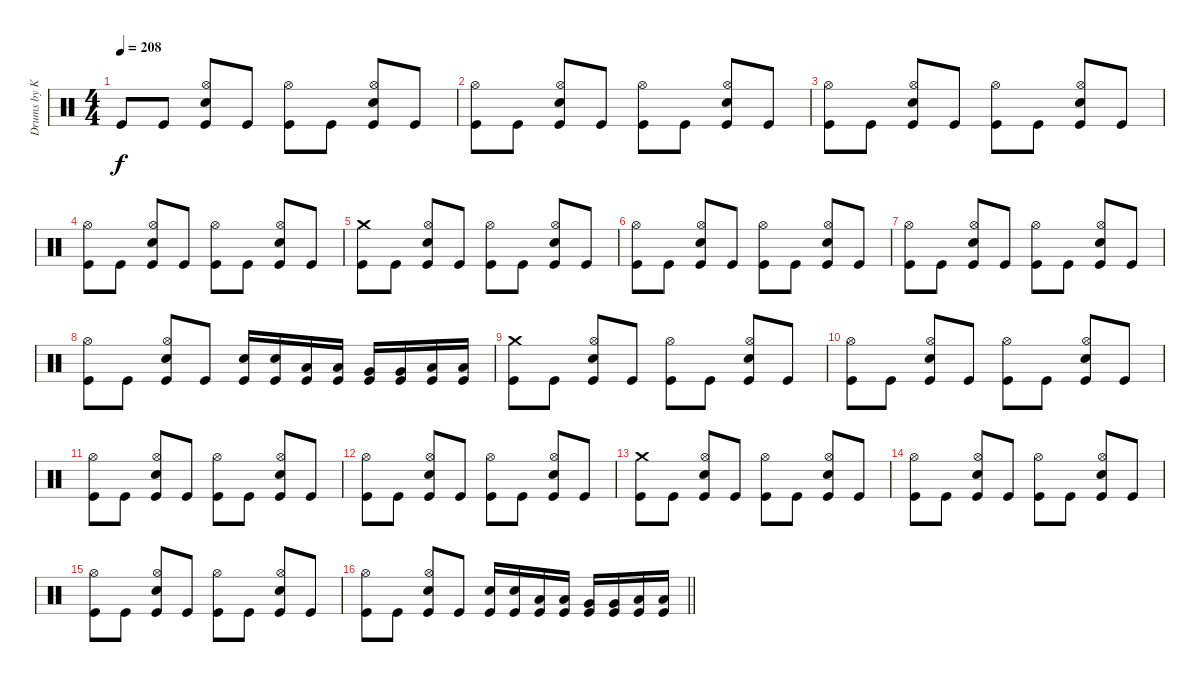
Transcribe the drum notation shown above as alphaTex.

\track ("Drums by Kwonnie" "Drums by K") {instrument percussion}
\staff {score}
\articulation defaults
\ts (4 4)
\tempo 208
\clef neutral
\ks c "Kick (hit)".8{dy f} "Kick (hit)".8
("Hi-Hat (open)" "Electric Snare (hit)" "Kick (hit)").8 "Kick (hit)".8 ("Hi-Hat (open)" "Kick (hit)").8 "Kick (hit)".8 ("Hi-Hat (open)" "Electric Snare (hit)" "Kick (hit)").8 "Kick (hit)".8 |
("Hi-Hat (open)" "Kick (hit)").8 "Kick (hit)".8 ("Hi-Hat (open)" "Electric Snare (hit)" "Kick (hit)").8 "Kick (hit)".8 ("Hi-Hat (open)" "Kick (hit)").8 "Kick (hit)".8 ("Hi-Hat (open)" "Electric Snare (hit)" "Kick (hit)").8 "Kick (hit)".8 |
("Hi-Hat (open)" "Kick (hit)").8 "Kick (hit)".8 ("Hi-Hat (open)" "Electric Snare (hit)" "Kick (hit)").8 "Kick (hit)".8 ("Hi-Hat (open)" "Kick (hit)").8 "Kick (hit)".8 ("Hi-Hat (open)" "Electric Snare (hit)" "Kick (hit)").8 "Kick (hit)".8 |
("Hi-Hat (open)" "Kick (hit)").8 "Kick (hit)".8 ("Hi-Hat (open)" "Electric Snare (hit)" "Kick (hit)").8 "Kick (hit)".8 ("Hi-Hat (open)" "Kick (hit)").8 "Kick (hit)".8 ("Hi-Hat (open)" "Electric Snare (hit)" "Kick (hit)").8 "Kick (hit)".8 |
("Crash medium (hit)" "Kick (hit)").8 "Kick (hit)".8 ("Hi-Hat (open)" "Electric Snare (hit)" "Kick (hit)").8 "Kick (hit)".8 ("Hi-Hat (open)" "Kick (hit)").8 "Kick (hit)".8 ("Hi-Hat (open)" "Electric Snare (hit)" "Kick (hit)").8 "Kick (hit)".8 |
("Hi-Hat (open)" "Kick (hit)").8 "Kick (hit)".8 ("Hi-Hat (open)" "Electric Snare (hit)" "Kick (hit)").8 "Kick (hit)".8 ("Hi-Hat (open)" "Kick (hit)").8 "Kick (hit)".8 ("Hi-Hat (open)" "Electric Snare (hit)" "Kick (hit)").8 "Kick (hit)".8 |
("Hi-Hat (open)" "Kick (hit)").8 "Kick (hit)".8 ("Hi-Hat (open)" "Electric Snare (hit)" "Kick (hit)").8 "Kick (hit)".8 ("Hi-Hat (open)" "Kick (hit)").8 "Kick (hit)".8 ("Hi-Hat (open)" "Electric Snare (hit)" "Kick (hit)").8 "Kick (hit)".8 |
("Hi-Hat (open)" "Kick (hit)").8 "Kick (hit)".8 ("Hi-Hat (open)" "Electric Snare (hit)" "Kick (hit)").8 "Kick (hit)".8 ("Electric Snare (hit)" "Kick (hit)").16 ("Electric Snare (hit)" "Kick (hit)").16 ("Low Tom (hit)" "Kick (hit)").16 ("Low Tom (hit)" "Kick (hit)").16 ("Very Low Tom (hit)" "Kick (hit)").16 ("Very Low Tom (hit)" "Kick (hit)").16 ("Low Floor Tom (hit)" "Kick (hit)").16 ("Low Floor Tom (hit)" "Kick (hit)").16 |
("Crash medium (hit)" "Kick (hit)").8 "Kick (hit)".8 ("Hi-Hat (open)" "Electric Snare (hit)" "Kick (hit)").8 "Kick (hit)".8 ("Hi-Hat (open)" "Kick (hit)").8 "Kick (hit)".8 ("Hi-Hat (open)" "Electric Snare (hit)" "Kick (hit)").8 "Kick (hit)".8 |
("Hi-Hat (open)" "Kick (hit)").8 "Kick (hit)".8 ("Hi-Hat (open)" "Electric Snare (hit)" "Kick (hit)").8 "Kick (hit)".8 ("Hi-Hat (open)" "Kick (hit)").8 "Kick (hit)".8 ("Hi-Hat (open)" "Electric Snare (hit)" "Kick (hit)").8 "Kick (hit)".8 |
("Hi-Hat (open)" "Kick (hit)").8 "Kick (hit)".8 ("Hi-Hat (open)" "Electric Snare (hit)" "Kick (hit)").8 "Kick (hit)".8 ("Hi-Hat (open)" "Kick (hit)").8 "Kick (hit)".8 ("Hi-Hat (open)" "Electric Snare (hit)" "Kick (hit)").8 "Kick (hit)".8 |
("Hi-Hat (open)" "Kick (hit)").8 "Kick (hit)".8 ("Hi-Hat (open)" "Electric Snare (hit)" "Kick (hit)").8 "Kick (hit)".8 ("Hi-Hat (open)" "Kick (hit)").8 "Kick (hit)".8 ("Hi-Hat (open)" "Electric Snare (hit)" "Kick (hit)").8 "Kick (hit)".8 |
("Crash medium (hit)" "Kick (hit)").8 "Kick (hit)".8 ("Hi-Hat (open)" "Electric Snare (hit)" "Kick (hit)").8 "Kick (hit)".8 ("Hi-Hat (open)" "Kick (hit)").8 "Kick (hit)".8 ("Hi-Hat (open)" "Electric Snare (hit)" "Kick (hit)").8 "Kick (hit)".8 |
("Hi-Hat (open)" "Kick (hit)").8 "Kick (hit)".8 ("Hi-Hat (open)" "Electric Snare (hit)" "Kick (hit)").8 "Kick (hit)".8 ("Hi-Hat (open)" "Kick (hit)").8 "Kick (hit)".8 ("Hi-Hat (open)" "Electric Snare (hit)" "Kick (hit)").8 "Kick (hit)".8 |
("Hi-Hat (open)" "Kick (hit)").8 "Kick (hit)".8 ("Hi-Hat (open)" "Electric Snare (hit)" "Kick (hit)").8 "Kick (hit)".8 ("Hi-Hat (open)" "Kick (hit)").8 "Kick (hit)".8 ("Hi-Hat (open)" "Electric Snare (hit)" "Kick (hit)").8 "Kick (hit)".8 |
\barLineRight lightlight
("Hi-Hat (open)" "Kick (hit)").8 "Kick (hit)".8 ("Hi-Hat (open)" "Electric Snare (hit)" "Kick (hit)").8 "Kick (hit)".8 ("Electric Snare (hit)" "Kick (hit)").16 ("Electric Snare (hit)" "Kick (hit)").16 ("Low Tom (hit)" "Kick (hit)").16 ("Low Tom (hit)" "Kick (hit)").16 ("Very Low Tom (hit)" "Kick (hit)").16 ("Very Low Tom (hit)" "Kick (hit)").16 ("Low Floor Tom (hit)" "Kick (hit)").16 ("Low Floor Tom (hit)" "Kick (hit)").16
